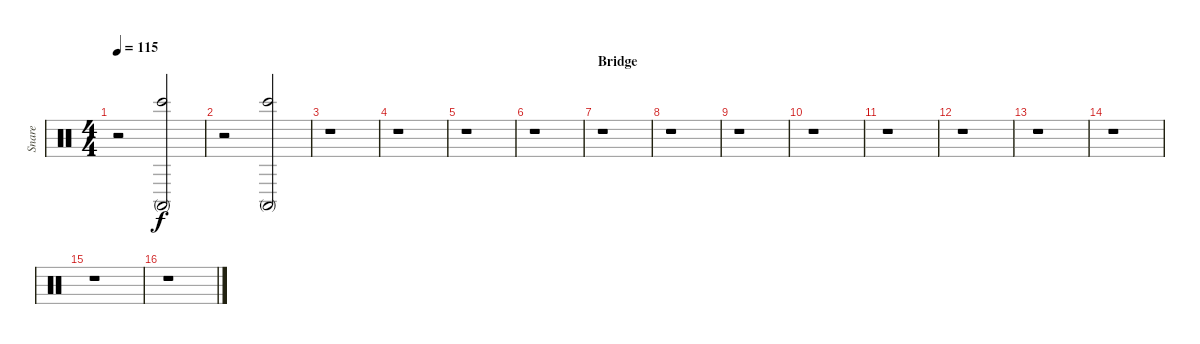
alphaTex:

\track ("Snare" "Snare") {instrument percussion}
\staff {score}
\articulation defaults
\ts (4 4)
\tempo 115
\clef neutral
\ks c
r.2{dy f} ("Conga high (mute)" "Bongo High (hit)").2 |
r.2 ("Conga high (mute)" "Bongo High (hit)").2 |
r.1 |
r.1 |
r.1 |
r.1 |
\section ("" "Bridge")
r.1 |
r.1 |
r.1 |
r.1 |
r.1 |
r.1 |
r.1 |
r.1 |
r.1 |
r.1
